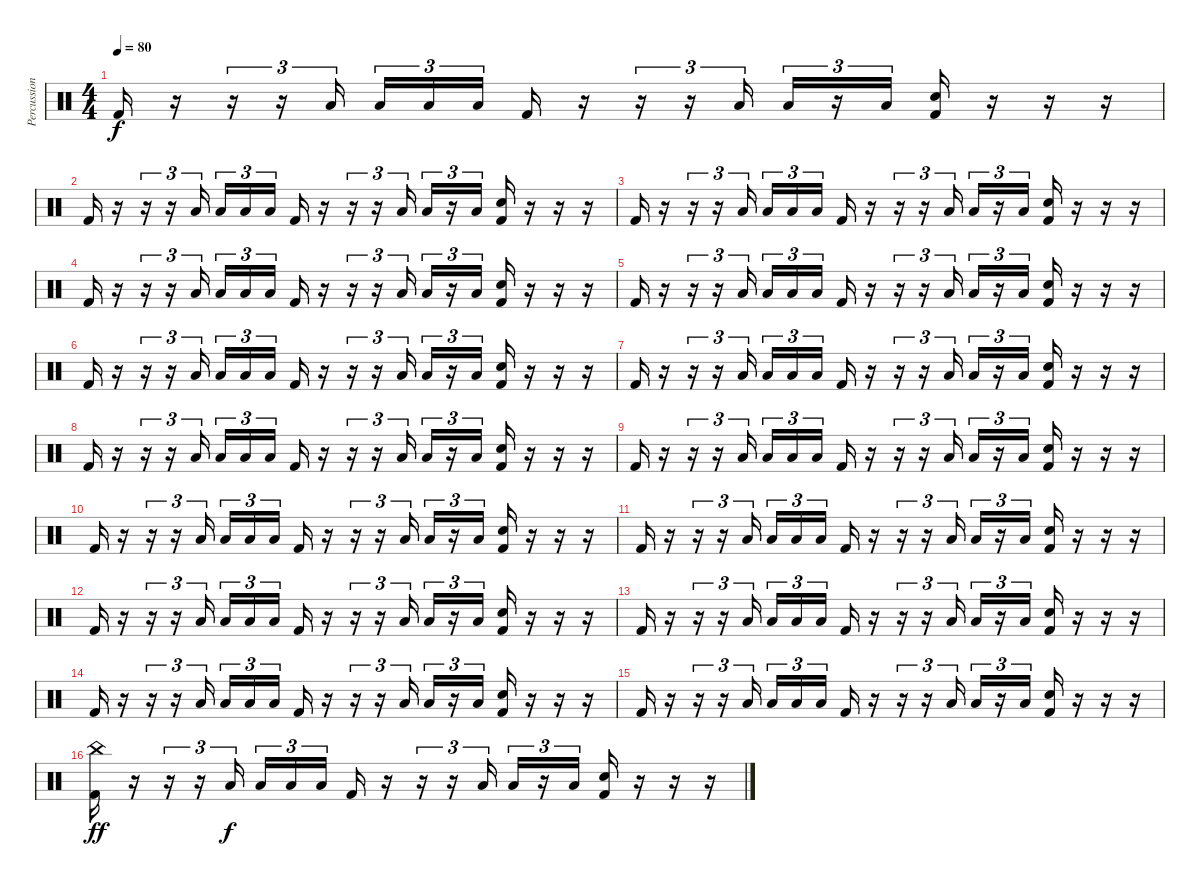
\track ("Percussion" "Percussion") {instrument percussion}
\staff {score}
\articulation defaults
\ts (4 4)
\tempo 80
\clef neutral
\ks c "Kick (hit) 2".16{dy f}
r.16 r.16{tu (3 2)} r.16{tu (3 2)} "Low Floor Tom (hit)".16{tu (3 2) bd 60} "Low Floor Tom (hit)".16{tu (3 2) bu 60} "Low Floor Tom (hit)".16{tu (3 2) bd 60} "Low Floor Tom (hit)".16{tu (3 2) bu 60 beam splitsecondary} "Kick (hit) 2".16 r.16 r.16{tu (3 2)} r.16{tu (3 2)} "Low Floor Tom (hit)".16{tu (3 2) bd 60} "Low Floor Tom (hit)".16{tu (3 2) bu 60} r.16{tu (3 2)} "Low Floor Tom (hit)".16{tu (3 2) bu 60} ("Hand Clap (hit)" "Kick (hit) 2").16 r.16 r.16 r.16 |
"Kick (hit) 2".16 r.16 r.16{tu (3 2)} r.16{tu (3 2)} "Low Floor Tom (hit)".16{tu (3 2) bd 60} "Low Floor Tom (hit)".16{tu (3 2) bu 60} "Low Floor Tom (hit)".16{tu (3 2) bd 60} "Low Floor Tom (hit)".16{tu (3 2) bu 60 beam splitsecondary} "Kick (hit) 2".16 r.16 r.16{tu (3 2)} r.16{tu (3 2)} "Low Floor Tom (hit)".16{tu (3 2) bd 60} "Low Floor Tom (hit)".16{tu (3 2) bu 60} r.16{tu (3 2)} "Low Floor Tom (hit)".16{tu (3 2) bu 60} ("Hand Clap (hit)" "Kick (hit) 2").16 r.16 r.16 r.16 |
"Kick (hit) 2".16 r.16 r.16{tu (3 2)} r.16{tu (3 2)} "Low Floor Tom (hit)".16{tu (3 2) bd 60} "Low Floor Tom (hit)".16{tu (3 2) bu 60} "Low Floor Tom (hit)".16{tu (3 2) bd 60} "Low Floor Tom (hit)".16{tu (3 2) bu 60 beam splitsecondary} "Kick (hit) 2".16 r.16 r.16{tu (3 2)} r.16{tu (3 2)} "Low Floor Tom (hit)".16{tu (3 2) bd 60} "Low Floor Tom (hit)".16{tu (3 2) bu 60} r.16{tu (3 2)} "Low Floor Tom (hit)".16{tu (3 2) bu 60} ("Hand Clap (hit)" "Kick (hit) 2").16 r.16 r.16 r.16 |
"Kick (hit) 2".16 r.16 r.16{tu (3 2)} r.16{tu (3 2)} "Low Floor Tom (hit)".16{tu (3 2) bd 60} "Low Floor Tom (hit)".16{tu (3 2) bu 60} "Low Floor Tom (hit)".16{tu (3 2) bd 60} "Low Floor Tom (hit)".16{tu (3 2) bu 60 beam splitsecondary} "Kick (hit) 2".16 r.16 r.16{tu (3 2)} r.16{tu (3 2)} "Low Floor Tom (hit)".16{tu (3 2) bd 60} "Low Floor Tom (hit)".16{tu (3 2) bu 60} r.16{tu (3 2)} "Low Floor Tom (hit)".16{tu (3 2) bu 60} ("Hand Clap (hit)" "Kick (hit) 2").16 r.16 r.16 r.16 |
"Kick (hit) 2".16 r.16 r.16{tu (3 2)} r.16{tu (3 2)} "Low Floor Tom (hit)".16{tu (3 2) bd 60} "Low Floor Tom (hit)".16{tu (3 2) bu 60} "Low Floor Tom (hit)".16{tu (3 2) bd 60} "Low Floor Tom (hit)".16{tu (3 2) bu 60 beam splitsecondary} "Kick (hit) 2".16 r.16 r.16{tu (3 2)} r.16{tu (3 2)} "Low Floor Tom (hit)".16{tu (3 2) bd 60} "Low Floor Tom (hit)".16{tu (3 2) bu 60} r.16{tu (3 2)} "Low Floor Tom (hit)".16{tu (3 2) bu 60} ("Hand Clap (hit)" "Kick (hit) 2").16 r.16 r.16 r.16 |
"Kick (hit) 2".16 r.16 r.16{tu (3 2)} r.16{tu (3 2)} "Low Floor Tom (hit)".16{tu (3 2) bd 60} "Low Floor Tom (hit)".16{tu (3 2) bu 60} "Low Floor Tom (hit)".16{tu (3 2) bd 60} "Low Floor Tom (hit)".16{tu (3 2) bu 60 beam splitsecondary} "Kick (hit) 2".16 r.16 r.16{tu (3 2)} r.16{tu (3 2)} "Low Floor Tom (hit)".16{tu (3 2) bd 60} "Low Floor Tom (hit)".16{tu (3 2) bu 60} r.16{tu (3 2)} "Low Floor Tom (hit)".16{tu (3 2) bu 60} ("Hand Clap (hit)" "Kick (hit) 2").16 r.16 r.16 r.16 |
"Kick (hit) 2".16 r.16 r.16{tu (3 2)} r.16{tu (3 2)} "Low Floor Tom (hit)".16{tu (3 2) bd 60} "Low Floor Tom (hit)".16{tu (3 2) bu 60} "Low Floor Tom (hit)".16{tu (3 2) bd 60} "Low Floor Tom (hit)".16{tu (3 2) bu 60 beam splitsecondary} "Kick (hit) 2".16 r.16 r.16{tu (3 2)} r.16{tu (3 2)} "Low Floor Tom (hit)".16{tu (3 2) bd 60} "Low Floor Tom (hit)".16{tu (3 2) bu 60} r.16{tu (3 2)} "Low Floor Tom (hit)".16{tu (3 2) bu 60} ("Hand Clap (hit)" "Kick (hit) 2").16 r.16 r.16 r.16 |
"Kick (hit) 2".16 r.16 r.16{tu (3 2)} r.16{tu (3 2)} "Low Floor Tom (hit)".16{tu (3 2) bd 60} "Low Floor Tom (hit)".16{tu (3 2) bu 60} "Low Floor Tom (hit)".16{tu (3 2) bd 60} "Low Floor Tom (hit)".16{tu (3 2) bu 60 beam splitsecondary} "Kick (hit) 2".16 r.16 r.16{tu (3 2)} r.16{tu (3 2)} "Low Floor Tom (hit)".16{tu (3 2) bd 60} "Low Floor Tom (hit)".16{tu (3 2) bu 60} r.16{tu (3 2)} "Low Floor Tom (hit)".16{tu (3 2) bu 60} ("Hand Clap (hit)" "Kick (hit) 2").16 r.16 r.16 r.16 |
"Kick (hit) 2".16 r.16 r.16{tu (3 2)} r.16{tu (3 2)} "Low Floor Tom (hit)".16{tu (3 2) bd 60} "Low Floor Tom (hit)".16{tu (3 2) bu 60} "Low Floor Tom (hit)".16{tu (3 2) bd 60} "Low Floor Tom (hit)".16{tu (3 2) bu 60 beam splitsecondary} "Kick (hit) 2".16 r.16 r.16{tu (3 2)} r.16{tu (3 2)} "Low Floor Tom (hit)".16{tu (3 2) bd 60} "Low Floor Tom (hit)".16{tu (3 2) bu 60} r.16{tu (3 2)} "Low Floor Tom (hit)".16{tu (3 2) bu 60} ("Hand Clap (hit)" "Kick (hit) 2").16 r.16 r.16 r.16 |
"Kick (hit) 2".16 r.16 r.16{tu (3 2)} r.16{tu (3 2)} "Low Floor Tom (hit)".16{tu (3 2) bd 60} "Low Floor Tom (hit)".16{tu (3 2) bu 60} "Low Floor Tom (hit)".16{tu (3 2) bd 60} "Low Floor Tom (hit)".16{tu (3 2) bu 60 beam splitsecondary} "Kick (hit) 2".16 r.16 r.16{tu (3 2)} r.16{tu (3 2)} "Low Floor Tom (hit)".16{tu (3 2) bd 60} "Low Floor Tom (hit)".16{tu (3 2) bu 60} r.16{tu (3 2)} "Low Floor Tom (hit)".16{tu (3 2) bu 60} ("Hand Clap (hit)" "Kick (hit) 2").16 r.16 r.16 r.16 |
"Kick (hit) 2".16 r.16 r.16{tu (3 2)} r.16{tu (3 2)} "Low Floor Tom (hit)".16{tu (3 2) bd 60} "Low Floor Tom (hit)".16{tu (3 2) bu 60} "Low Floor Tom (hit)".16{tu (3 2) bd 60} "Low Floor Tom (hit)".16{tu (3 2) bu 60 beam splitsecondary} "Kick (hit) 2".16 r.16 r.16{tu (3 2)} r.16{tu (3 2)} "Low Floor Tom (hit)".16{tu (3 2) bd 60} "Low Floor Tom (hit)".16{tu (3 2) bu 60} r.16{tu (3 2)} "Low Floor Tom (hit)".16{tu (3 2) bu 60} ("Hand Clap (hit)" "Kick (hit) 2").16 r.16 r.16 r.16 |
"Kick (hit) 2".16 r.16 r.16{tu (3 2)} r.16{tu (3 2)} "Low Floor Tom (hit)".16{tu (3 2) bd 60} "Low Floor Tom (hit)".16{tu (3 2) bu 60} "Low Floor Tom (hit)".16{tu (3 2) bd 60} "Low Floor Tom (hit)".16{tu (3 2) bu 60 beam splitsecondary} "Kick (hit) 2".16 r.16 r.16{tu (3 2)} r.16{tu (3 2)} "Low Floor Tom (hit)".16{tu (3 2) bd 60} "Low Floor Tom (hit)".16{tu (3 2) bu 60} r.16{tu (3 2)} "Low Floor Tom (hit)".16{tu (3 2) bu 60} ("Hand Clap (hit)" "Kick (hit) 2").16 r.16 r.16 r.16 |
"Kick (hit) 2".16 r.16 r.16{tu (3 2)} r.16{tu (3 2)} "Low Floor Tom (hit)".16{tu (3 2) bd 60} "Low Floor Tom (hit)".16{tu (3 2) bu 60} "Low Floor Tom (hit)".16{tu (3 2) bd 60} "Low Floor Tom (hit)".16{tu (3 2) bu 60 beam splitsecondary} "Kick (hit) 2".16 r.16 r.16{tu (3 2)} r.16{tu (3 2)} "Low Floor Tom (hit)".16{tu (3 2) bd 60} "Low Floor Tom (hit)".16{tu (3 2) bu 60} r.16{tu (3 2)} "Low Floor Tom (hit)".16{tu (3 2) bu 60} ("Hand Clap (hit)" "Kick (hit) 2").16 r.16 r.16 r.16 |
"Kick (hit) 2".16 r.16 r.16{tu (3 2)} r.16{tu (3 2)} "Low Floor Tom (hit)".16{tu (3 2) bd 60} "Low Floor Tom (hit)".16{tu (3 2) bu 60} "Low Floor Tom (hit)".16{tu (3 2) bd 60} "Low Floor Tom (hit)".16{tu (3 2) bu 60 beam splitsecondary} "Kick (hit) 2".16 r.16 r.16{tu (3 2)} r.16{tu (3 2)} "Low Floor Tom (hit)".16{tu (3 2) bd 60} "Low Floor Tom (hit)".16{tu (3 2) bu 60} r.16{tu (3 2)} "Low Floor Tom (hit)".16{tu (3 2) bu 60} ("Hand Clap (hit)" "Kick (hit) 2").16 r.16 r.16 r.16 |
"Kick (hit) 2".16 r.16 r.16{tu (3 2)} r.16{tu (3 2)} "Low Floor Tom (hit)".16{tu (3 2) bd 60} "Low Floor Tom (hit)".16{tu (3 2) bu 60} "Low Floor Tom (hit)".16{tu (3 2) bd 60} "Low Floor Tom (hit)".16{tu (3 2) bu 60 beam splitsecondary} "Kick (hit) 2".16 r.16 r.16{tu (3 2)} r.16{tu (3 2)} "Low Floor Tom (hit)".16{tu (3 2) bd 60} "Low Floor Tom (hit)".16{tu (3 2) bu 60} r.16{tu (3 2)} "Low Floor Tom (hit)".16{tu (3 2) bu 60} ("Hand Clap (hit)" "Kick (hit) 2").16 r.16 r.16 r.16 |
("China (hit)" "Kick (hit) 2").16{dy ff} r.16 r.16{tu (3 2)} r.16{tu (3 2)} "Low Floor Tom (hit)".16{tu (3 2) bd 60 dy f} "Low Floor Tom (hit)".16{tu (3 2) bu 60} "Low Floor Tom (hit)".16{tu (3 2) bd 60} "Low Floor Tom (hit)".16{tu (3 2) bu 60 beam splitsecondary} "Kick (hit) 2".16 r.16 r.16{tu (3 2)} r.16{tu (3 2)} "Low Floor Tom (hit)".16{tu (3 2) bd 60} "Low Floor Tom (hit)".16{tu (3 2) bu 60} r.16{tu (3 2)} "Low Floor Tom (hit)".16{tu (3 2) bu 60} ("Hand Clap (hit)" "Kick (hit) 2").16 r.16 r.16 r.16
